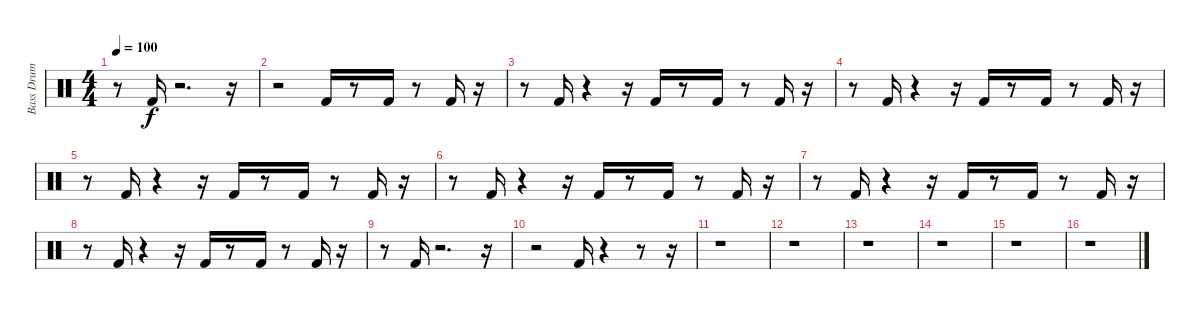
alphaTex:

\track ("Bass Drum" "Bass Drum") {instrument percussion}
\staff {score}
\articulation defaults
\ts (4 4)
\tempo 100
\clef neutral
\ks c
r.8{dy f} "Kick (hit) 2".16 r.2{d} r.16 |
r.2 "Kick (hit) 2".16 r.8 "Kick (hit) 2".16 r.8 "Kick (hit) 2".16 r.16 |
r.8 "Kick (hit) 2".16 r.4 r.16 "Kick (hit) 2".16 r.8 "Kick (hit) 2".16 r.8 "Kick (hit) 2".16 r.16 |
r.8 "Kick (hit) 2".16 r.4 r.16 "Kick (hit) 2".16 r.8 "Kick (hit) 2".16 r.8 "Kick (hit) 2".16 r.16 |
r.8 "Kick (hit) 2".16 r.4 r.16 "Kick (hit) 2".16 r.8 "Kick (hit) 2".16 r.8 "Kick (hit) 2".16 r.16 |
r.8 "Kick (hit) 2".16 r.4 r.16 "Kick (hit) 2".16 r.8 "Kick (hit) 2".16 r.8 "Kick (hit) 2".16 r.16 |
r.8 "Kick (hit) 2".16 r.4 r.16 "Kick (hit) 2".16 r.8 "Kick (hit) 2".16 r.8 "Kick (hit) 2".16 r.16 |
r.8 "Kick (hit) 2".16 r.4 r.16 "Kick (hit) 2".16 r.8 "Kick (hit) 2".16 r.8 "Kick (hit) 2".16 r.16 |
r.8 "Kick (hit) 2".16 r.2{d} r.16 |
r.2 "Kick (hit) 2".16 r.4 r.8 r.16 |
r.1 |
r.1 |
r.1 |
r.1 |
r.1 |
r.1
